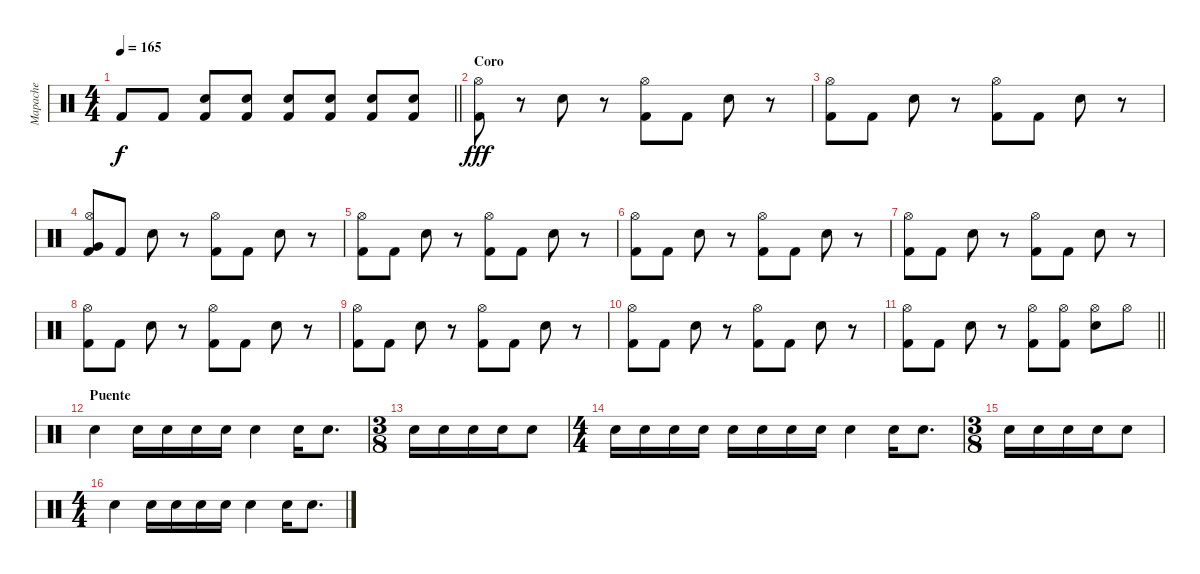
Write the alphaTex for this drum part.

\track ("Mapache" "Mapache") {instrument percussion}
\staff
\articulation defaults
\ts (4 4)
\tempo 165
\clef neutral
\barLineRight lightlight
\ks c "Kick (hit) 2".8{dy f} "Kick (hit) 2".8
("Electric Snare (hit)" "Kick (hit) 2").8 ("Electric Snare (hit)" "Kick (hit) 2").8 ("Electric Snare (hit)" "Kick (hit) 2").8 ("Electric Snare (hit)" "Kick (hit) 2").8 ("Electric Snare (hit)" "Kick (hit) 2").8 ("Electric Snare (hit)" "Kick (hit) 2").8 |
\section ("" "Coro")
("Hi-Hat (open)" "Kick (hit) 2").8{dy fff} r.8 "Electric Snare (hit)".8 r.8 ("Hi-Hat (open)" "Kick (hit) 2").8 "Kick (hit) 2".8 "Electric Snare (hit)".8 r.8 |
("Hi-Hat (open)" "Kick (hit) 2").8 "Kick (hit) 2".8 "Electric Snare (hit)".8 r.8 ("Hi-Hat (open)" "Kick (hit) 2").8 "Kick (hit) 2".8 "Electric Snare (hit)".8 r.8 |
("Hi-Hat (open)" "Very Low Tom (hit)" "Kick (hit) 2").8 "Kick (hit) 2".8 "Electric Snare (hit)".8 r.8 ("Hi-Hat (open)" "Kick (hit) 2").8 "Kick (hit) 2".8 "Electric Snare (hit)".8 r.8 |
("Hi-Hat (open)" "Kick (hit) 2").8 "Kick (hit) 2".8 "Electric Snare (hit)".8 r.8 ("Hi-Hat (open)" "Kick (hit) 2").8 "Kick (hit) 2".8 "Electric Snare (hit)".8 r.8 |
("Hi-Hat (open)" "Kick (hit) 2").8 "Kick (hit) 2".8 "Electric Snare (hit)".8 r.8 ("Hi-Hat (open)" "Kick (hit) 2").8 "Kick (hit) 2".8 "Electric Snare (hit)".8 r.8 |
("Hi-Hat (open)" "Kick (hit) 2").8 "Kick (hit) 2".8 "Electric Snare (hit)".8 r.8 ("Hi-Hat (open)" "Kick (hit) 2").8 "Kick (hit) 2".8 "Electric Snare (hit)".8 r.8 |
("Hi-Hat (open)" "Kick (hit) 2").8 "Kick (hit) 2".8 "Electric Snare (hit)".8 r.8 ("Hi-Hat (open)" "Kick (hit) 2").8 "Kick (hit) 2".8 "Electric Snare (hit)".8 r.8 |
("Hi-Hat (open)" "Kick (hit) 2").8 "Kick (hit) 2".8 "Electric Snare (hit)".8 r.8 ("Hi-Hat (open)" "Kick (hit) 2").8 "Kick (hit) 2".8 "Electric Snare (hit)".8 r.8 |
("Hi-Hat (open)" "Kick (hit) 2").8 "Kick (hit) 2".8 "Electric Snare (hit)".8 r.8 ("Hi-Hat (open)" "Kick (hit) 2").8 "Kick (hit) 2".8 "Electric Snare (hit)".8 r.8 |
\barLineRight lightlight
("Hi-Hat (open)" "Kick (hit) 2").8 "Kick (hit) 2".8 "Electric Snare (hit)".8 r.8 ("Hi-Hat (open)" "Kick (hit) 2").8 ("Hi-Hat (open)" "Kick (hit) 2").8 ("Hi-Hat (open)" "Electric Snare (hit)").8 "Hi-Hat (open)".8 |
\section ("" "Puente")
"Electric Snare (hit)".4 "Electric Snare (hit)".16 "Electric Snare (hit)".16 "Electric Snare (hit)".16 "Electric Snare (hit)".16 "Electric Snare (hit)".4 "Electric Snare (hit)".16 "Electric Snare (hit)".8{d} |
\ts (3 8)
"Electric Snare (hit)".16 "Electric Snare (hit)".16 "Electric Snare (hit)".16 "Electric Snare (hit)".16 "Electric Snare (hit)".8 |
\ts (4 4)
"Electric Snare (hit)".16 "Electric Snare (hit)".16 "Electric Snare (hit)".16 "Electric Snare (hit)".16 "Electric Snare (hit)".16 "Electric Snare (hit)".16 "Electric Snare (hit)".16 "Electric Snare (hit)".16 "Electric Snare (hit)".4 "Electric Snare (hit)".16 "Electric Snare (hit)".8{d} |
\ts (3 8)
"Electric Snare (hit)".16 "Electric Snare (hit)".16 "Electric Snare (hit)".16 "Electric Snare (hit)".16 "Electric Snare (hit)".8 |
\ts (4 4)
"Electric Snare (hit)".4 "Electric Snare (hit)".16 "Electric Snare (hit)".16 "Electric Snare (hit)".16 "Electric Snare (hit)".16 "Electric Snare (hit)".4 "Electric Snare (hit)".16 "Electric Snare (hit)".8{d}
